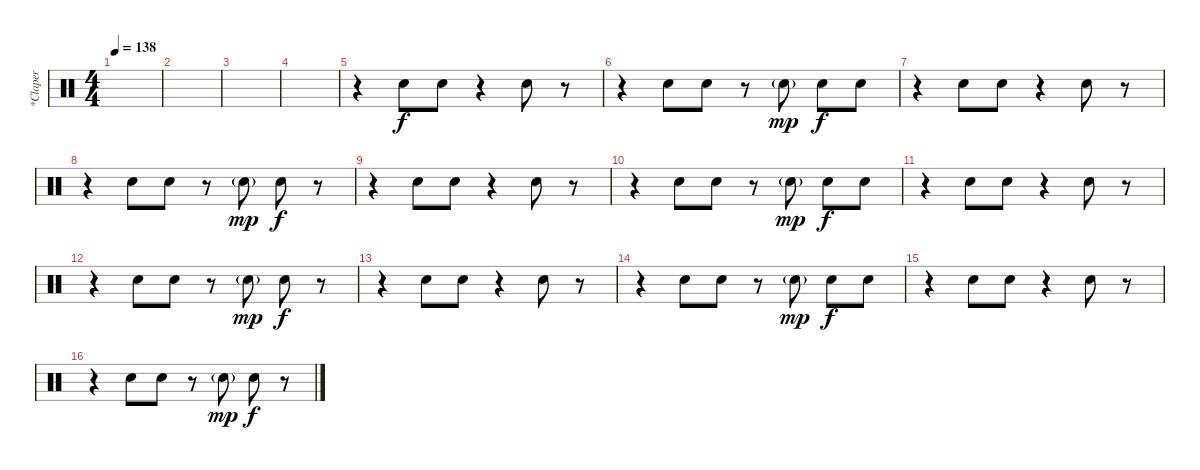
\track ("*Claper" "*Claper") {instrument percussion}
\staff {score}
\articulation defaults
\ts (4 4)
\tempo 138
\clef neutral
\ks c
|
|
|
|
r.4 "Hand Clap (hit)".8 "Hand Clap (hit)".8 r.4 "Hand Clap (hit)".8 r.8 |
r.4 "Hand Clap (hit)".8 "Hand Clap (hit)".8 r.8 "Hand Clap (hit)"{g}.8{dy mp} "Hand Clap (hit)".8{dy f} "Hand Clap (hit)".8 |
r.4 "Hand Clap (hit)".8 "Hand Clap (hit)".8 r.4 "Hand Clap (hit)".8 r.8 |
r.4 "Hand Clap (hit)".8 "Hand Clap (hit)".8 r.8 "Hand Clap (hit)"{g}.8{dy mp} "Hand Clap (hit)".8{dy f} r.8 |
r.4 "Hand Clap (hit)".8 "Hand Clap (hit)".8 r.4 "Hand Clap (hit)".8 r.8 |
r.4 "Hand Clap (hit)".8 "Hand Clap (hit)".8 r.8 "Hand Clap (hit)"{g}.8{dy mp} "Hand Clap (hit)".8{dy f} "Hand Clap (hit)".8 |
r.4 "Hand Clap (hit)".8 "Hand Clap (hit)".8 r.4 "Hand Clap (hit)".8 r.8 |
r.4 "Hand Clap (hit)".8 "Hand Clap (hit)".8 r.8 "Hand Clap (hit)"{g}.8{dy mp} "Hand Clap (hit)".8{dy f} r.8 |
r.4 "Hand Clap (hit)".8 "Hand Clap (hit)".8 r.4 "Hand Clap (hit)".8 r.8 |
r.4 "Hand Clap (hit)".8 "Hand Clap (hit)".8 r.8 "Hand Clap (hit)"{g}.8{dy mp} "Hand Clap (hit)".8{dy f} "Hand Clap (hit)".8 |
r.4 "Hand Clap (hit)".8 "Hand Clap (hit)".8 r.4 "Hand Clap (hit)".8 r.8 |
r.4 "Hand Clap (hit)".8 "Hand Clap (hit)".8 r.8 "Hand Clap (hit)"{g}.8{dy mp} "Hand Clap (hit)".8{dy f} r.8
